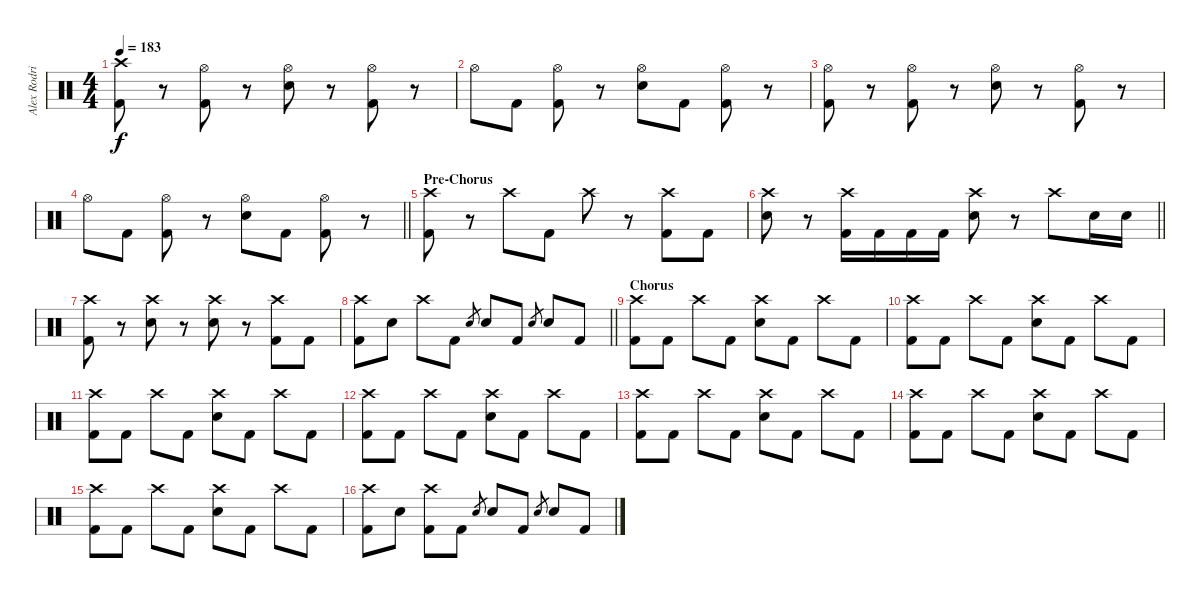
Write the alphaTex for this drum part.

\track ("Alex Rodriguez [Not Finished Yet]" "Alex Rodri") {mute instrument percussion}
\staff {score}
\articulation defaults
\ts (4 4)
\tempo 183
\clef neutral
\ks c
("Crash high (hit)" "Kick (hit) 2").8{dy f} r.8 ("Hi-Hat (open)" "Kick (hit) 2").8 r.8 ("Hi-Hat (open)" "Electric Snare (hit)").8 r.8 ("Hi-Hat (open)" "Kick (hit) 2").8 r.8 |
"Hi-Hat (open)".8 "Kick (hit) 2".8 ("Hi-Hat (open)" "Kick (hit) 2").8 r.8 ("Hi-Hat (open)" "Electric Snare (hit)").8 "Kick (hit) 2".8 ("Hi-Hat (open)" "Kick (hit) 2").8 r.8 |
("Hi-Hat (open)" "Kick (hit) 2").8 r.8 ("Hi-Hat (open)" "Kick (hit) 2").8 r.8 ("Hi-Hat (open)" "Electric Snare (hit)").8 r.8 ("Hi-Hat (open)" "Kick (hit) 2").8 r.8 |
\barLineRight lightlight "Hi-Hat (open)".8 "Kick (hit) 2".8
("Hi-Hat (open)" "Kick (hit) 2").8 r.8 ("Hi-Hat (open)" "Electric Snare (hit)").8 "Kick (hit) 2".8 ("Hi-Hat (open)" "Kick (hit) 2").8 r.8 |
\section ("" "Pre-Chorus")
("Crash high (hit)" "Kick (hit) 2").8 r.8 "Crash high (hit)".8 "Kick (hit) 2".8 "Crash high (hit)".8 r.8 ("Crash high (hit)" "Kick (hit) 2").8 "Kick (hit) 2".8 |
\barLineRight lightlight
("Crash high (hit)" "Electric Snare (hit)").8 r.8 ("Crash high (hit)" "Kick (hit) 2").16 "Kick (hit) 2".16 "Kick (hit) 2".16 "Kick (hit) 2".16 ("Crash high (hit)" "Electric Snare (hit)").8 r.8 "Crash high (hit)".8 "Electric Snare (hit)".16 "Electric Snare (hit)".16 |
("Crash high (hit)" "Kick (hit) 2").8 r.8 ("Crash high (hit)" "Electric Snare (hit)").8 r.8 ("Crash high (hit)" "Electric Snare (hit)").8 r.8 ("Crash high (hit)" "Kick (hit) 2").8 "Kick (hit) 2".8 |
\barLineRight lightlight
("Crash high (hit)" "Kick (hit) 2").8 "Electric Snare (hit)".8 "Crash high (hit)".8 "Kick (hit) 2".8 "Electric Snare (hit)".8{gr} "Electric Snare (hit)".8 "Kick (hit) 2".8 "Electric Snare (hit)".8{gr} "Electric Snare (hit)".8 "Kick (hit) 2".8 |
\section ("" "Chorus")
("Crash high (hit)" "Kick (hit) 2").8 "Kick (hit) 2".8 "Crash high (hit)".8 "Kick (hit) 2".8 ("Crash high (hit)" "Electric Snare (hit)").8 "Kick (hit) 2".8 "Crash high (hit)".8 "Kick (hit) 2".8 |
("Crash high (hit)" "Kick (hit) 2").8 "Kick (hit) 2".8 "Crash high (hit)".8 "Kick (hit) 2".8 ("Crash high (hit)" "Electric Snare (hit)").8 "Kick (hit) 2".8 "Crash high (hit)".8 "Kick (hit) 2".8 |
("Crash high (hit)" "Kick (hit) 2").8 "Kick (hit) 2".8 "Crash high (hit)".8 "Kick (hit) 2".8 ("Crash high (hit)" "Electric Snare (hit)").8 "Kick (hit) 2".8 "Crash high (hit)".8 "Kick (hit) 2".8 |
("Crash high (hit)" "Kick (hit) 2").8 "Kick (hit) 2".8 "Crash high (hit)".8 "Kick (hit) 2".8 ("Crash high (hit)" "Electric Snare (hit)").8 "Kick (hit) 2".8 "Crash high (hit)".8 "Kick (hit) 2".8 |
("Crash high (hit)" "Kick (hit) 2").8 "Kick (hit) 2".8 "Crash high (hit)".8 "Kick (hit) 2".8 ("Crash high (hit)" "Electric Snare (hit)").8 "Kick (hit) 2".8 "Crash high (hit)".8 "Kick (hit) 2".8 |
("Crash high (hit)" "Kick (hit) 2").8 "Kick (hit) 2".8 "Crash high (hit)".8 "Kick (hit) 2".8 ("Crash high (hit)" "Electric Snare (hit)").8 "Kick (hit) 2".8 "Crash high (hit)".8 "Kick (hit) 2".8 |
("Crash high (hit)" "Kick (hit) 2").8 "Kick (hit) 2".8 "Crash high (hit)".8 "Kick (hit) 2".8 ("Crash high (hit)" "Electric Snare (hit)").8 "Kick (hit) 2".8 "Crash high (hit)".8 "Kick (hit) 2".8 |
("Crash high (hit)" "Kick (hit) 2").8 "Electric Snare (hit)".8 ("Crash high (hit)" "Kick (hit) 2").8 "Kick (hit) 2".8 "Electric Snare (hit)".8{gr} "Electric Snare (hit)".8 "Kick (hit) 2".8 "Electric Snare (hit)".8{gr} "Electric Snare (hit)".8 "Kick (hit) 2".8
